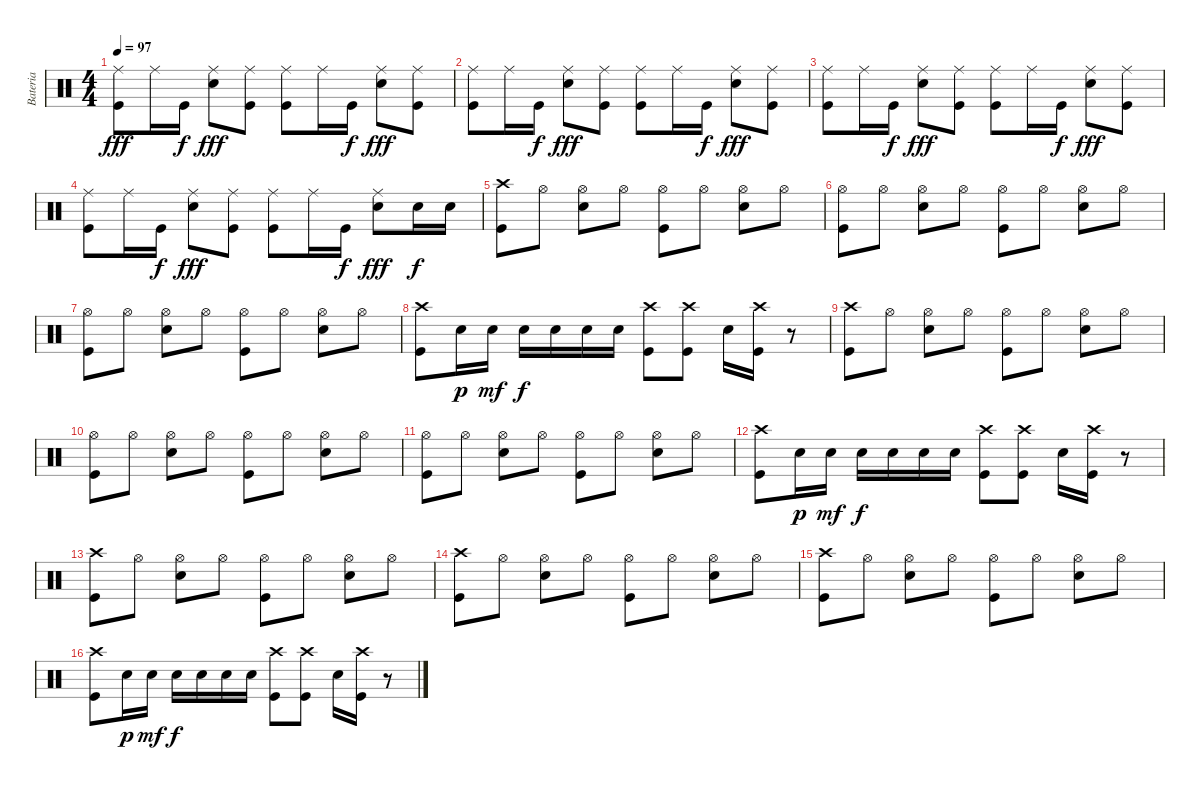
\track ("Bateria" "Bateria") {instrument percussion}
\staff {score}
\articulation defaults
\ts (4 4)
\tempo 97
\clef neutral
\ks c
("Ride (middle)" "Kick (hit)").8{dy fff} "Ride (middle)".16 "Kick (hit)".16{dy f} ("Ride (middle)" "Electric Snare (hit)").8{dy fff} ("Ride (middle)" "Kick (hit)").8 ("Ride (middle)" "Kick (hit)").8 "Ride (middle)".16 "Kick (hit)".16{dy f} ("Ride (middle)" "Electric Snare (hit)").8{dy fff} ("Ride (middle)" "Kick (hit)").8 |
("Ride (middle)" "Kick (hit)").8 "Ride (middle)".16 "Kick (hit)".16{dy f} ("Ride (middle)" "Electric Snare (hit)").8{dy fff} ("Ride (middle)" "Kick (hit)").8 ("Ride (middle)" "Kick (hit)").8 "Ride (middle)".16 "Kick (hit)".16{dy f} ("Ride (middle)" "Electric Snare (hit)").8{dy fff} ("Ride (middle)" "Kick (hit)").8 |
("Ride (middle)" "Kick (hit)").8 "Ride (middle)".16 "Kick (hit)".16{dy f} ("Ride (middle)" "Electric Snare (hit)").8{dy fff} ("Ride (middle)" "Kick (hit)").8 ("Ride (middle)" "Kick (hit)").8 "Ride (middle)".16 "Kick (hit)".16{dy f} ("Ride (middle)" "Electric Snare (hit)").8{dy fff} ("Ride (middle)" "Kick (hit)").8 |
("Ride (middle)" "Kick (hit)").8 "Ride (middle)".16 "Kick (hit)".16{dy f} ("Ride (middle)" "Electric Snare (hit)").8{dy fff} ("Ride (middle)" "Kick (hit)").8 ("Ride (middle)" "Kick (hit)").8 "Ride (middle)".16 "Kick (hit)".16{dy f} ("Ride (middle)" "Electric Snare (hit)").8{dy fff} "Electric Snare (hit)".16{dy f} "Electric Snare (hit)".16 |
("Kick (hit)" "Crash high (hit)").8 "Hi-Hat (open)".8 ("Electric Snare (hit)" "Hi-Hat (open)").8 "Hi-Hat (open)".8 ("Kick (hit)" "Hi-Hat (open)").8 "Hi-Hat (open)".8 ("Electric Snare (hit)" "Hi-Hat (open)").8 "Hi-Hat (open)".8 |
("Kick (hit)" "Hi-Hat (open)").8 "Hi-Hat (open)".8 ("Electric Snare (hit)" "Hi-Hat (open)").8 "Hi-Hat (open)".8 ("Kick (hit)" "Hi-Hat (open)").8 "Hi-Hat (open)".8 ("Electric Snare (hit)" "Hi-Hat (open)").8 "Hi-Hat (open)".8 |
("Kick (hit)" "Hi-Hat (open)").8 "Hi-Hat (open)".8 ("Electric Snare (hit)" "Hi-Hat (open)").8 "Hi-Hat (open)".8 ("Kick (hit)" "Hi-Hat (open)").8 "Hi-Hat (open)".8 ("Electric Snare (hit)" "Hi-Hat (open)").8 "Hi-Hat (open)".8 |
("Crash high (hit)" "Kick (hit)").8 "Electric Snare (hit)".16{dy p} "Electric Snare (hit)".16{dy mf} "Electric Snare (hit)".16{dy f} "Electric Snare (hit)".16 "Electric Snare (hit)".16 "Electric Snare (hit)".16 ("Crash high (hit)" "Kick (hit)").8 ("Crash high (hit)" "Kick (hit)").8 "Electric Snare (hit)".16 ("Crash high (hit)" "Kick (hit)").16 r.8 |
("Crash high (hit)" "Kick (hit)").8 "Hi-Hat (open)".8 ("Electric Snare (hit)" "Hi-Hat (open)").8 "Hi-Hat (open)".8 ("Kick (hit)" "Hi-Hat (open)").8 "Hi-Hat (open)".8 ("Electric Snare (hit)" "Hi-Hat (open)").8 "Hi-Hat (open)".8 |
("Kick (hit)" "Hi-Hat (open)").8 "Hi-Hat (open)".8 ("Electric Snare (hit)" "Hi-Hat (open)").8 "Hi-Hat (open)".8 ("Kick (hit)" "Hi-Hat (open)").8 "Hi-Hat (open)".8 ("Electric Snare (hit)" "Hi-Hat (open)").8 "Hi-Hat (open)".8 |
("Kick (hit)" "Hi-Hat (open)").8 "Hi-Hat (open)".8 ("Electric Snare (hit)" "Hi-Hat (open)").8 "Hi-Hat (open)".8 ("Kick (hit)" "Hi-Hat (open)").8 "Hi-Hat (open)".8 ("Electric Snare (hit)" "Hi-Hat (open)").8 "Hi-Hat (open)".8 |
("Crash high (hit)" "Kick (hit)").8 "Electric Snare (hit)".16{dy p} "Electric Snare (hit)".16{dy mf} "Electric Snare (hit)".16{dy f} "Electric Snare (hit)".16 "Electric Snare (hit)".16 "Electric Snare (hit)".16 ("Crash high (hit)" "Kick (hit)").8 ("Crash high (hit)" "Kick (hit)").8 "Electric Snare (hit)".16 ("Crash high (hit)" "Kick (hit)").16 r.8 |
("Crash high (hit)" "Kick (hit)").8 "Hi-Hat (open)".8 ("Electric Snare (hit)" "Hi-Hat (open)").8 "Hi-Hat (open)".8 ("Kick (hit)" "Hi-Hat (open)").8 "Hi-Hat (open)".8 ("Electric Snare (hit)" "Hi-Hat (open)").8 "Hi-Hat (open)".8 |
("Crash high (hit)" "Kick (hit)").8 "Hi-Hat (open)".8 ("Electric Snare (hit)" "Hi-Hat (open)").8 "Hi-Hat (open)".8 ("Kick (hit)" "Hi-Hat (open)").8 "Hi-Hat (open)".8 ("Electric Snare (hit)" "Hi-Hat (open)").8 "Hi-Hat (open)".8 |
("Crash high (hit)" "Kick (hit)").8 "Hi-Hat (open)".8 ("Electric Snare (hit)" "Hi-Hat (open)").8 "Hi-Hat (open)".8 ("Kick (hit)" "Hi-Hat (open)").8 "Hi-Hat (open)".8 ("Electric Snare (hit)" "Hi-Hat (open)").8 "Hi-Hat (open)".8 |
("Crash high (hit)" "Kick (hit)").8 "Electric Snare (hit)".16{dy p} "Electric Snare (hit)".16{dy mf} "Electric Snare (hit)".16{dy f} "Electric Snare (hit)".16 "Electric Snare (hit)".16 "Electric Snare (hit)".16 ("Crash high (hit)" "Kick (hit)").8 ("Crash high (hit)" "Kick (hit)").8 "Electric Snare (hit)".16 ("Crash high (hit)" "Kick (hit)").16 r.8
